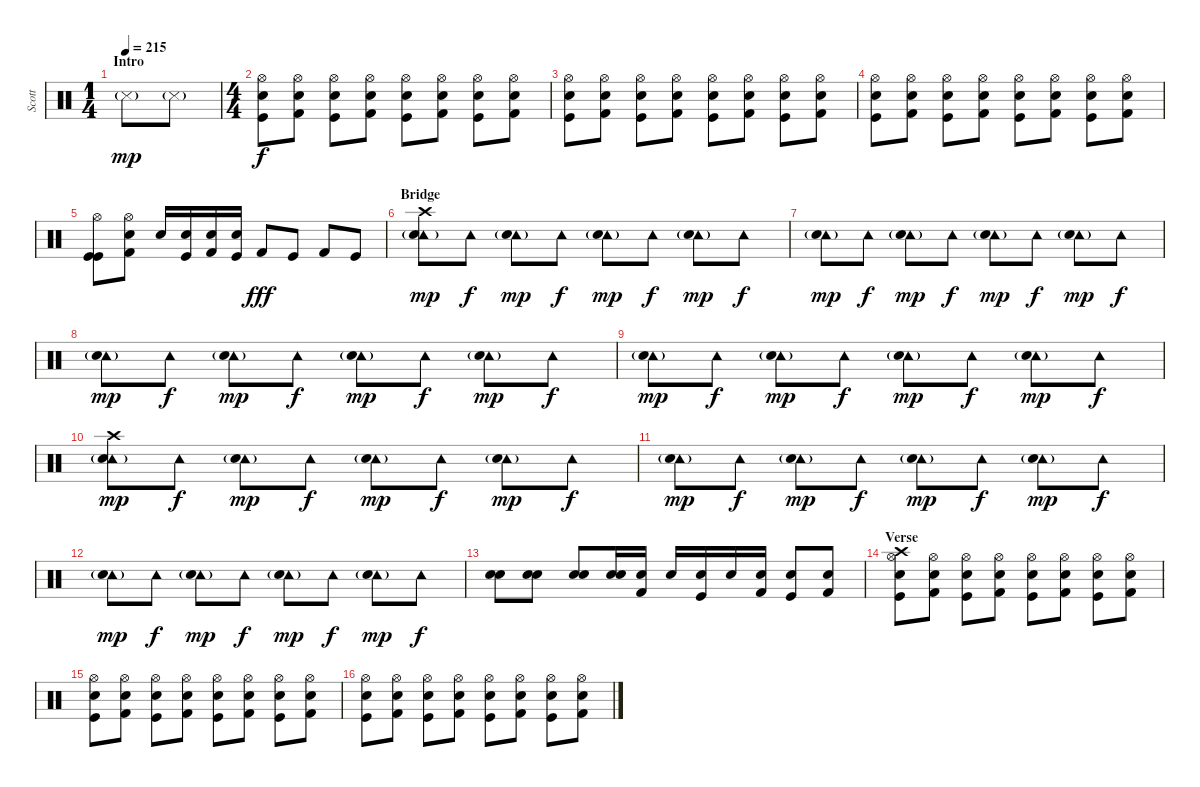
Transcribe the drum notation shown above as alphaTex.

\track ("Scott" "Scott") {instrument percussion}
\staff {score}
\articulation defaults
\ts (1 4)
\section ("" "Intro")
\tempo 215
\clef neutral
\ks c "Snare (side stick) 3"{g}.8{dy mp} "Snare (side stick) 3"{g}.8
|
\ts (4 4)
("Hi-Hat (open)" "Snare (hit) 2" "Kick (hit)").8{dy f} ("Hi-Hat (open)" "Electric Snare (hit)" "Kick (hit) 2").8 ("Hi-Hat (open)" "Snare (hit) 2" "Kick (hit)").8 ("Hi-Hat (open)" "Electric Snare (hit)" "Kick (hit) 2").8 ("Hi-Hat (open)" "Snare (hit) 2" "Kick (hit)").8 ("Hi-Hat (open)" "Electric Snare (hit)" "Kick (hit) 2").8 ("Hi-Hat (open)" "Snare (hit) 2" "Kick (hit)").8 ("Hi-Hat (open)" "Electric Snare (hit)" "Kick (hit) 2").8 |
("Hi-Hat (open)" "Snare (hit) 2" "Kick (hit)").8 ("Hi-Hat (open)" "Electric Snare (hit)" "Kick (hit) 2").8 ("Hi-Hat (open)" "Snare (hit) 2" "Kick (hit)").8 ("Hi-Hat (open)" "Electric Snare (hit)" "Kick (hit) 2").8 ("Hi-Hat (open)" "Snare (hit) 2" "Kick (hit)").8 ("Hi-Hat (open)" "Electric Snare (hit)" "Kick (hit) 2").8 ("Hi-Hat (open)" "Snare (hit) 2" "Kick (hit)").8 ("Hi-Hat (open)" "Electric Snare (hit)" "Kick (hit) 2").8 |
("Hi-Hat (open)" "Snare (hit) 2" "Kick (hit)").8 ("Hi-Hat (open)" "Electric Snare (hit)" "Kick (hit) 2").8 ("Hi-Hat (open)" "Snare (hit) 2" "Kick (hit)").8 ("Hi-Hat (open)" "Electric Snare (hit)" "Kick (hit) 2").8 ("Hi-Hat (open)" "Snare (hit) 2" "Kick (hit)").8 ("Hi-Hat (open)" "Electric Snare (hit)" "Kick (hit) 2").8 ("Hi-Hat (open)" "Snare (hit) 2" "Kick (hit)").8 ("Hi-Hat (open)" "Electric Snare (hit)" "Kick (hit) 2").8 |
("Hi-Hat (open)" "Kick (hit)" "Kick (hit)").8 ("Hi-Hat (open)" "Electric Snare (hit)" "Kick (hit) 2").8 "Snare (hit) 2".16 ("Snare (hit) 2" "Kick (hit)").16 ("Snare (hit) 2" "Kick (hit) 2").16 ("Snare (hit) 2" "Kick (hit)").16 "Kick (hit) 2".8{dy fff} "Kick (hit)".8 "Kick (hit) 2".8 "Kick (hit)".8 |
\section ("" "Bridge")
("Crash high (hit)" "Tambourine (hit)" "Electric Snare (hit)"{g}).8{dy mp} "Tambourine (hit)".8{dy f} ("Tambourine (hit)" "Electric Snare (hit)"{g}).8{dy mp} "Tambourine (hit)".8{dy f} ("Tambourine (hit)" "Electric Snare (hit)"{g}).8{dy mp} "Tambourine (hit)".8{dy f} ("Tambourine (hit)" "Electric Snare (hit)"{g}).8{dy mp} "Tambourine (hit)".8{dy f} |
("Tambourine (hit)" "Electric Snare (hit)"{g}).8{dy mp} "Tambourine (hit)".8{dy f} ("Tambourine (hit)" "Electric Snare (hit)"{g}).8{dy mp} "Tambourine (hit)".8{dy f} ("Tambourine (hit)" "Electric Snare (hit)"{g}).8{dy mp} "Tambourine (hit)".8{dy f} ("Tambourine (hit)" "Electric Snare (hit)"{g}).8{dy mp} "Tambourine (hit)".8{dy f} |
("Tambourine (hit)" "Electric Snare (hit)"{g}).8{dy mp} "Tambourine (hit)".8{dy f} ("Tambourine (hit)" "Electric Snare (hit)"{g}).8{dy mp} "Tambourine (hit)".8{dy f} ("Tambourine (hit)" "Electric Snare (hit)"{g}).8{dy mp} "Tambourine (hit)".8{dy f} ("Tambourine (hit)" "Electric Snare (hit)"{g}).8{dy mp} "Tambourine (hit)".8{dy f} |
("Tambourine (hit)" "Electric Snare (hit)"{g}).8{dy mp} "Tambourine (hit)".8{dy f} ("Tambourine (hit)" "Electric Snare (hit)"{g}).8{dy mp} "Tambourine (hit)".8{dy f} ("Tambourine (hit)" "Electric Snare (hit)"{g}).8{dy mp} "Tambourine (hit)".8{dy f} ("Tambourine (hit)" "Electric Snare (hit)"{g}).8{dy mp} "Tambourine (hit)".8{dy f} |
("Crash high (hit)" "Tambourine (hit)" "Electric Snare (hit)"{g}).8{dy mp} "Tambourine (hit)".8{dy f} ("Tambourine (hit)" "Electric Snare (hit)"{g}).8{dy mp} "Tambourine (hit)".8{dy f} ("Tambourine (hit)" "Electric Snare (hit)"{g}).8{dy mp} "Tambourine (hit)".8{dy f} ("Tambourine (hit)" "Electric Snare (hit)"{g}).8{dy mp} "Tambourine (hit)".8{dy f} |
("Tambourine (hit)" "Electric Snare (hit)"{g}).8{dy mp} "Tambourine (hit)".8{dy f} ("Tambourine (hit)" "Electric Snare (hit)"{g}).8{dy mp} "Tambourine (hit)".8{dy f} ("Tambourine (hit)" "Electric Snare (hit)"{g}).8{dy mp} "Tambourine (hit)".8{dy f} ("Tambourine (hit)" "Electric Snare (hit)"{g}).8{dy mp} "Tambourine (hit)".8{dy f} |
("Tambourine (hit)" "Electric Snare (hit)"{g}).8{dy mp} "Tambourine (hit)".8{dy f} ("Tambourine (hit)" "Electric Snare (hit)"{g}).8{dy mp} "Tambourine (hit)".8{dy f} ("Tambourine (hit)" "Electric Snare (hit)"{g}).8{dy mp} "Tambourine (hit)".8{dy f} ("Tambourine (hit)" "Electric Snare (hit)"{g}).8{dy mp} "Tambourine (hit)".8{dy f} |
("Snare (hit) 2" "Electric Snare (hit)").8 ("Snare (hit) 2" "Electric Snare (hit)").8 ("Snare (hit) 2" "Electric Snare (hit)").8 ("Snare (hit) 2" "Electric Snare (hit)").16 ("Kick (hit) 2" "Electric Snare (hit)").16 "Snare (hit) 2".16 ("Kick (hit)" "Electric Snare (hit)").16 "Snare (hit) 2".16 ("Kick (hit) 2" "Electric Snare (hit)").16 ("Snare (hit) 2" "Kick (hit)").8 ("Snare (hit) 2" "Kick (hit) 2").8 |
\section ("" "Verse")
("Crash high (hit)" "Hi-Hat (open)" "Snare (hit) 2" "Kick (hit)").8 ("Hi-Hat (open)" "Electric Snare (hit)" "Kick (hit) 2").8 ("Hi-Hat (open)" "Snare (hit) 2" "Kick (hit)").8 ("Hi-Hat (open)" "Electric Snare (hit)" "Kick (hit) 2").8 ("Hi-Hat (open)" "Snare (hit) 2" "Kick (hit)").8 ("Hi-Hat (open)" "Electric Snare (hit)" "Kick (hit) 2").8 ("Hi-Hat (open)" "Snare (hit) 2" "Kick (hit)").8 ("Hi-Hat (open)" "Electric Snare (hit)" "Kick (hit) 2").8 |
("Hi-Hat (open)" "Snare (hit) 2" "Kick (hit)").8 ("Hi-Hat (open)" "Electric Snare (hit)" "Kick (hit) 2").8 ("Hi-Hat (open)" "Snare (hit) 2" "Kick (hit)").8 ("Hi-Hat (open)" "Electric Snare (hit)" "Kick (hit) 2").8 ("Hi-Hat (open)" "Snare (hit) 2" "Kick (hit)").8 ("Hi-Hat (open)" "Electric Snare (hit)" "Kick (hit) 2").8 ("Hi-Hat (open)" "Snare (hit) 2" "Kick (hit)").8 ("Hi-Hat (open)" "Electric Snare (hit)" "Kick (hit) 2").8 |
("Hi-Hat (open)" "Snare (hit) 2" "Kick (hit)").8 ("Hi-Hat (open)" "Electric Snare (hit)" "Kick (hit) 2").8 ("Hi-Hat (open)" "Snare (hit) 2" "Kick (hit)").8 ("Hi-Hat (open)" "Electric Snare (hit)" "Kick (hit) 2").8 ("Hi-Hat (open)" "Snare (hit) 2" "Kick (hit)").8 ("Hi-Hat (open)" "Electric Snare (hit)" "Kick (hit) 2").8 ("Hi-Hat (open)" "Snare (hit) 2" "Kick (hit)").8 ("Hi-Hat (open)" "Electric Snare (hit)" "Kick (hit) 2").8
